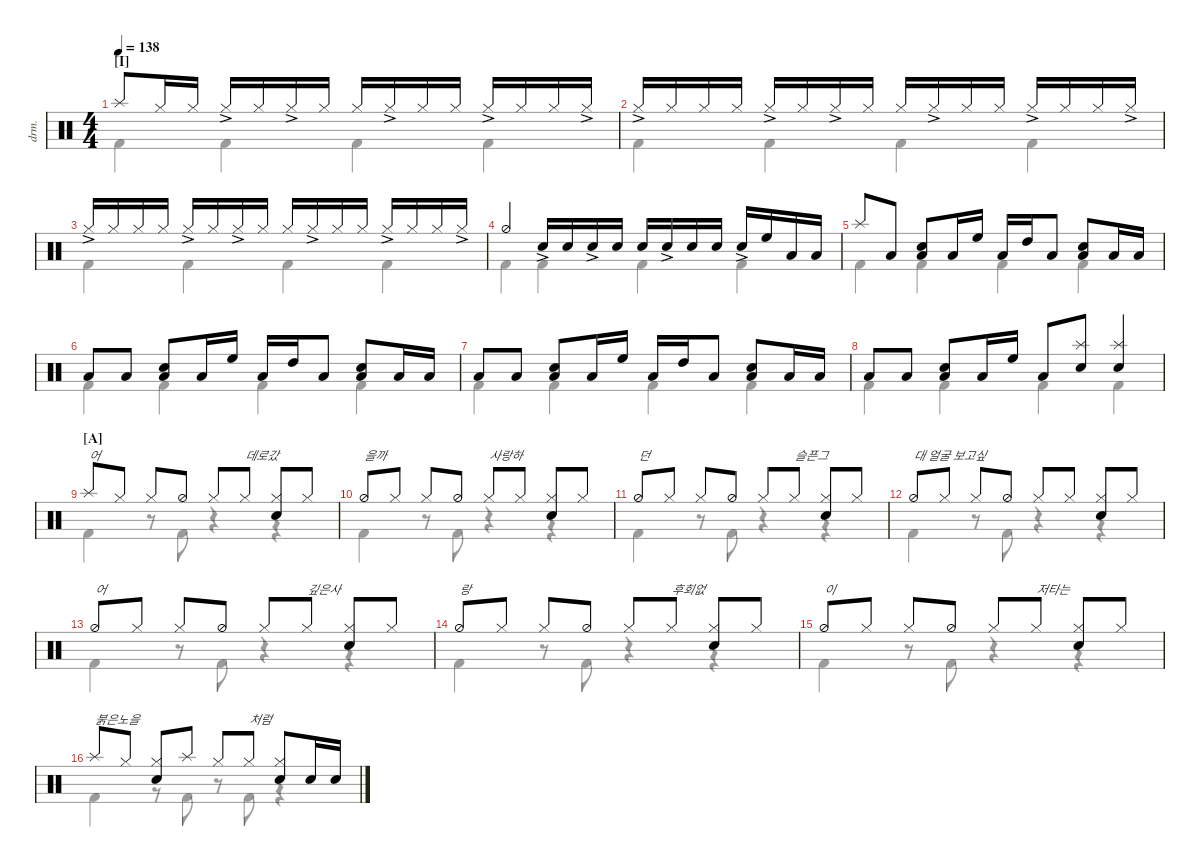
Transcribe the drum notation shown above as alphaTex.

\defaultSystemsLayout 4
\hideDynamics
\bracketExtendMode nobrackets
\track ("Drumkit" "drm.") {instrument percussion}
\staff {score}
\articulation defaults
\voice
\ts (4 4)
\section ("I" "")
\tempo 138
\clef neutral
\ks c "Splash (hit)".8{dy mf beam Up} "Hi-Hat (closed)".16{beam Up} "Hi-Hat (closed)".16{beam Up} "Hi-Hat (closed)"{ac}.16{beam Up} "Hi-Hat (closed)".16{beam Up} "Hi-Hat (closed)"{ac}.16{beam Up} "Hi-Hat (closed)".16{beam Up} "Hi-Hat (closed)".16{beam Up} "Hi-Hat (closed)"{ac}.16{beam Up} "Hi-Hat (closed)".16{beam Up} "Hi-Hat (closed)".16{beam Up} "Hi-Hat (closed)"{ac}.16{beam Up} "Hi-Hat (closed)".16{beam Up} "Hi-Hat (closed)".16{beam Up} "Hi-Hat (closed)"{ac}.16{beam Up}
|
"Hi-Hat (closed)"{ac}.16{beam Up} "Hi-Hat (closed)".16{beam Up} "Hi-Hat (closed)".16{beam Up} "Hi-Hat (closed)".16{beam Up} "Hi-Hat (closed)"{ac}.16{beam Up} "Hi-Hat (closed)".16{beam Up} "Hi-Hat (closed)"{ac}.16{beam Up} "Hi-Hat (closed)".16{beam Up} "Hi-Hat (closed)".16{beam Up} "Hi-Hat (closed)"{ac}.16{beam Up} "Hi-Hat (closed)".16{beam Up} "Hi-Hat (closed)".16{beam Up} "Hi-Hat (closed)"{ac}.16{beam Up} "Hi-Hat (closed)".16{beam Up} "Hi-Hat (closed)".16{beam Up} "Hi-Hat (closed)"{ac}.16{beam Up} |
"Hi-Hat (closed)"{ac}.16{beam Up} "Hi-Hat (closed)".16{beam Up} "Hi-Hat (closed)".16{beam Up} "Hi-Hat (closed)".16{beam Up} "Hi-Hat (closed)"{ac}.16{beam Up} "Hi-Hat (closed)".16{beam Up} "Hi-Hat (closed)"{ac}.16{beam Up} "Hi-Hat (closed)".16{beam Up} "Hi-Hat (closed)".16{beam Up} "Hi-Hat (closed)"{ac}.16{beam Up} "Hi-Hat (closed)".16{beam Up} "Hi-Hat (closed)".16{beam Up} "Hi-Hat (closed)"{ac}.16{beam Up} "Hi-Hat (closed)".16{beam Up} "Hi-Hat (closed)".16{beam Up} "Hi-Hat (closed)"{ac}.16{beam Up} |
"Hi-Hat (half)".4{beam Up} "Snare (hit) 2"{ac}.16{beam Up} "Snare (hit) 2".16{beam Up} "Snare (hit) 2"{ac}.16{beam Up} "Snare (hit) 2".16{beam Up} "Snare (hit) 2".16{beam Up} "Snare (hit) 2"{ac}.16{beam Up} "Snare (hit) 2".16{beam Up} "Snare (hit) 2".16{beam Up} "Snare (hit) 2"{ac}.16{beam Up} "High Floor Tom (hit)".16{beam Up} "Low Tom (hit)".16{beam Up} "Low Tom (hit)".16{beam Up} |
"Splash (hit)".8{beam Up} "Low Tom (hit)".8{beam Up} ("Low Tom (hit)" "Snare (hit) 2").8{beam Up} "Low Tom (hit)".16{beam Up} "High Floor Tom (hit)".16{beam Up} "Low Tom (hit)".16{beam Up} "High Tom (hit)".16{beam Up} "Low Tom (hit)".8{beam Up} ("Low Tom (hit)" "Snare (hit) 2").8{beam Up} "Low Tom (hit)".16{beam Up} "Low Tom (hit)".16{beam Up} |
"Low Tom (hit)".8{beam Up} "Low Tom (hit)".8{beam Up} ("Low Tom (hit)" "Snare (hit) 2").8{beam Up} "Low Tom (hit)".16{beam Up} "High Floor Tom (hit)".16{beam Up} "Low Tom (hit)".16{beam Up} "High Tom (hit)".16{beam Up} "Low Tom (hit)".8{beam Up} ("Low Tom (hit)" "Snare (hit) 2").8{beam Up} "Low Tom (hit)".16{beam Up} "Low Tom (hit)".16{beam Up} |
"Low Tom (hit)".8{beam Up} "Low Tom (hit)".8{beam Up} ("Low Tom (hit)" "Snare (hit) 2").8{beam Up} "Low Tom (hit)".16{beam Up} "High Floor Tom (hit)".16{beam Up} "Low Tom (hit)".16{beam Up} "High Tom (hit)".16{beam Up} "Low Tom (hit)".8{beam Up} ("Low Tom (hit)" "Snare (hit) 2").8{beam Up} "Low Tom (hit)".16{beam Up} "Low Tom (hit)".16{beam Up} |
"Low Tom (hit)".8{beam Up} "Low Tom (hit)".8{beam Up} ("Low Tom (hit)" "Snare (hit) 2").8{beam Up} "Low Tom (hit)".16{beam Up} "High Floor Tom (hit)".16{beam Up} "Low Tom (hit)".8{beam Up} ("Snare (hit) 2" "Splash (hit)").8{beam Up} ("Snare (hit) 2" "Splash (hit)").4{beam Up} |
\section ("A" "")
"Splash (hit)".8{txt "어" beam Up} "Hi-Hat (closed)".8{beam Up} "Hi-Hat (closed)".8{beam Up} "Hi-Hat (half)".8{beam Up} "Hi-Hat (closed)".8{beam Up} "Hi-Hat (closed)".8{txt "데로갔" beam Up} ("Hi-Hat (closed)" "Snare (hit) 2").8{beam Up} "Hi-Hat (closed)".8{beam Up} |
"Hi-Hat (half)".8{txt "을까" beam Up} "Hi-Hat (closed)".8{beam Up} "Hi-Hat (closed)".8{beam Up} "Hi-Hat (half)".8{beam Up} "Hi-Hat (closed)".8{txt "사랑하" beam Up} "Hi-Hat (closed)".8{beam Up} ("Hi-Hat (closed)" "Snare (hit) 2").8{beam Up} "Hi-Hat (closed)".8{beam Up} |
"Hi-Hat (half)".8{txt "던" beam Up} "Hi-Hat (closed)".8{beam Up} "Hi-Hat (closed)".8{beam Up} "Hi-Hat (half)".8{beam Up} "Hi-Hat (closed)".8{beam Up} "Hi-Hat (closed)".8{txt "슬픈그" beam Up} ("Hi-Hat (closed)" "Snare (hit) 2").8{beam Up} "Hi-Hat (closed)".8{beam Up} |
"Hi-Hat (half)".8{txt "대 얼굴 보고싶" beam Up} "Hi-Hat (closed)".8{beam Up} "Hi-Hat (closed)".8{beam Up} "Hi-Hat (half)".8{beam Up} "Hi-Hat (closed)".8{beam Up} "Hi-Hat (closed)".8{beam Up} ("Hi-Hat (closed)" "Snare (hit) 2").8{beam Up} "Hi-Hat (closed)".8{beam Up} |
"Hi-Hat (half)".8{txt "어" beam Up} "Hi-Hat (closed)".8{beam Up} "Hi-Hat (closed)".8{beam Up} "Hi-Hat (half)".8{beam Up} "Hi-Hat (closed)".8{beam Up} "Hi-Hat (closed)".8{txt "깊은사" beam Up} ("Hi-Hat (closed)" "Snare (hit) 2").8{beam Up} "Hi-Hat (closed)".8{beam Up} |
"Hi-Hat (half)".8{txt "랑" beam Up} "Hi-Hat (closed)".8{beam Up} "Hi-Hat (closed)".8{beam Up} "Hi-Hat (half)".8{beam Up} "Hi-Hat (closed)".8{beam Up} "Hi-Hat (closed)".8{txt "후회없" beam Up} ("Hi-Hat (closed)" "Snare (hit) 2").8{beam Up} "Hi-Hat (closed)".8{beam Up} |
"Hi-Hat (half)".8{txt "이" beam Up} "Hi-Hat (closed)".8{beam Up} "Hi-Hat (closed)".8{beam Up} "Hi-Hat (half)".8{beam Up} "Hi-Hat (closed)".8{beam Up} "Hi-Hat (closed)".8{txt "저타는" beam Up} ("Hi-Hat (closed)" "Snare (hit) 2").8{beam Up} "Hi-Hat (closed)".8{beam Up} |
"Splash (hit)".8{txt "붉은노을" beam Up} "Hi-Hat (closed)".8{beam Up} ("Hi-Hat (closed)" "Snare (hit) 2").8{beam Up} "Splash (hit)".8{beam Up} "Hi-Hat (closed)".8{beam Up} "Hi-Hat (closed)".8{txt "처럼" beam Up} ("Hi-Hat (closed)" "Snare (hit) 2").8{beam Up} "Snare (hit) 2".16{beam Up} "Snare (hit) 2".16{beam Up}
\voice
\clef neutral
\ottava regular
\simile none
\ks c
|
|
|
|
|
|
|
|
|
|
|
|
|
|
|
\voice
\clef neutral
\ottava regular
\simile none
\ks c "Kick (hit) 2".4{dy mf beam Down} "Kick (hit) 2".4{beam Down} "Kick (hit) 2".4{beam Down} "Kick (hit) 2".4{beam Down}
|
"Kick (hit) 2".4{beam Down} "Kick (hit) 2".4{beam Down} "Kick (hit) 2".4{beam Down} "Kick (hit) 2".4{beam Down} |
"Kick (hit) 2".4{beam Down} "Kick (hit) 2".4{beam Down} "Kick (hit) 2".4{beam Down} "Kick (hit) 2".4{beam Down} |
"Kick (hit) 2".4{beam Down} "Kick (hit) 2".4{beam Down} "Kick (hit) 2".4{beam Down} "Kick (hit) 2".4{beam Down} |
"Kick (hit) 2".4{beam Down} "Kick (hit) 2".4{beam Down} "Kick (hit) 2".4{beam Down} "Kick (hit) 2".4{beam Down} |
"Kick (hit) 2".4{beam Down} "Kick (hit) 2".4{beam Down} "Kick (hit) 2".4{beam Down} "Kick (hit) 2".4{beam Down} |
"Kick (hit) 2".4{beam Down} "Kick (hit) 2".4{beam Down} "Kick (hit) 2".4{beam Down} "Kick (hit) 2".4{beam Down} |
"Kick (hit) 2".4{beam Down} "Kick (hit) 2".4{beam Down} "Kick (hit) 2".4{beam Down} "Kick (hit) 2".4{beam Down} |
"Kick (hit) 2".4{beam Down} r.8{beam Down} "Kick (hit) 2".8{beam Down} r.4{beam Down} r.4{beam Down} |
"Kick (hit) 2".4{beam Down} r.8{beam Down} "Kick (hit) 2".8{beam Down} r.4{beam Down} r.4{beam Down} |
"Kick (hit) 2".4{beam Down} r.8{beam Down} "Kick (hit) 2".8{beam Down} r.4{beam Down} r.4{beam Down} |
"Kick (hit) 2".4{beam Down} r.8{beam Down} "Kick (hit) 2".8{beam Down} r.4{beam Down} r.4{beam Down} |
"Kick (hit) 2".4{beam Down} r.8{beam Down} "Kick (hit) 2".8{beam Down} r.4{beam Down} r.4{beam Down} |
"Kick (hit) 2".4{beam Down} r.8{beam Down} "Kick (hit) 2".8{beam Down} r.4{beam Down} r.4{beam Down} |
"Kick (hit) 2".4{beam Down} r.8{beam Down} "Kick (hit) 2".8{beam Down} r.4{beam Down} r.4{beam Down} |
"Kick (hit) 2".4{beam Down} r.8{beam Down} "Kick (hit) 2".8{beam Down} r.8{beam Down} "Kick (hit) 2".8{beam Down} r.4{beam Down}
